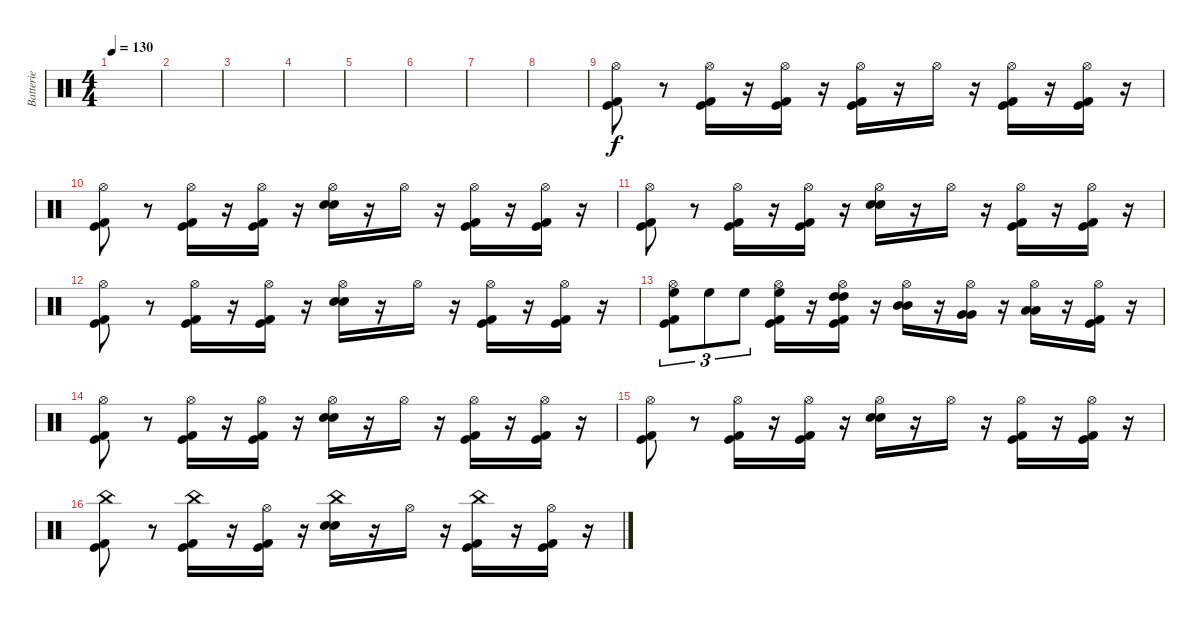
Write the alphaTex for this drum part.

\track ("Batterie" "Batterie") {instrument percussion}
\staff {score}
\articulation defaults
\ts (4 4)
\tempo 130
\clef neutral
\ks c
|
|
|
|
|
|
|
|
("Hi-Hat (open)" "Kick (hit) 2" "Kick (hit)").8 r.8 ("Hi-Hat (open)" "Kick (hit)" "Kick (hit) 2").16 r.16 ("Hi-Hat (open)" "Kick (hit)" "Kick (hit) 2").16 r.16 ("Hi-Hat (open)" "Kick (hit) 2" "Kick (hit)").16 r.16 "Hi-Hat (open)".16 r.16 ("Hi-Hat (open)" "Kick (hit)" "Kick (hit) 2").16 r.16 ("Hi-Hat (open)" "Kick (hit) 2" "Kick (hit)").16 r.16 |
("Hi-Hat (open)" "Kick (hit) 2" "Kick (hit)").8 r.8 ("Hi-Hat (open)" "Kick (hit)" "Kick (hit) 2").16 r.16 ("Hi-Hat (open)" "Kick (hit)" "Kick (hit) 2").16 r.16 ("Hi-Hat (open)" "Electric Snare (hit)" "Electric Snare (hit)").16 r.16 "Hi-Hat (open)".16 r.16 ("Hi-Hat (open)" "Kick (hit)" "Kick (hit) 2").16 r.16 ("Hi-Hat (open)" "Kick (hit) 2" "Kick (hit)").16 r.16 |
("Hi-Hat (open)" "Kick (hit) 2" "Kick (hit)").8 r.8 ("Hi-Hat (open)" "Kick (hit)" "Kick (hit) 2").16 r.16 ("Hi-Hat (open)" "Kick (hit)" "Kick (hit) 2").16 r.16 ("Hi-Hat (open)" "Electric Snare (hit)" "Electric Snare (hit)").16 r.16 "Hi-Hat (open)".16 r.16 ("Hi-Hat (open)" "Kick (hit)" "Kick (hit) 2").16 r.16 ("Hi-Hat (open)" "Kick (hit) 2" "Kick (hit)").16 r.16 |
("Hi-Hat (open)" "Kick (hit) 2" "Kick (hit)").8 r.8 ("Hi-Hat (open)" "Kick (hit)" "Kick (hit) 2").16 r.16 ("Hi-Hat (open)" "Kick (hit)" "Kick (hit) 2").16 r.16 ("Hi-Hat (open)" "Electric Snare (hit)" "Electric Snare (hit)").16 r.16 "Hi-Hat (open)".16 r.16 ("Hi-Hat (open)" "Kick (hit)" "Kick (hit) 2").16 r.16 ("Hi-Hat (open)" "Kick (hit) 2" "Kick (hit)").16 r.16 |
("Hi-Hat (open)" "High Floor Tom (hit)" "Kick (hit) 2" "Kick (hit)").8{tu (3 2)} "High Floor Tom (hit)".8{tu (3 2)} "High Floor Tom (hit)".8{tu (3 2)} ("Hi-Hat (open)" "High Floor Tom (hit)" "Kick (hit)" "Kick (hit) 2").16 r.16 ("Hi-Hat (open)" "High Tom (hit)" "High Tom (hit)" "Kick (hit)" "Kick (hit) 2").16 r.16 ("Hi-Hat (open)" "Mid Tom (hit)" "Mid Tom (hit)").16 r.16 ("Hi-Hat (open)" "Very Low Tom (hit)" "Very Low Tom (hit)").16 r.16 ("Hi-Hat (open)" "Low Floor Tom (hit)" "Low Floor Tom (hit)").16 r.16 ("Hi-Hat (open)" "Kick (hit)" "Kick (hit) 2").16 r.16 |
("Hi-Hat (open)" "Kick (hit) 2" "Kick (hit)").8 r.8 ("Hi-Hat (open)" "Kick (hit)" "Kick (hit) 2").16 r.16 ("Hi-Hat (open)" "Kick (hit)" "Kick (hit) 2").16 r.16 ("Hi-Hat (open)" "Electric Snare (hit)" "Electric Snare (hit)").16 r.16 "Hi-Hat (open)".16 r.16 ("Hi-Hat (open)" "Kick (hit)" "Kick (hit) 2").16 r.16 ("Hi-Hat (open)" "Kick (hit) 2" "Kick (hit)").16 r.16 |
("Hi-Hat (open)" "Kick (hit) 2" "Kick (hit)").8 r.8 ("Hi-Hat (open)" "Kick (hit)" "Kick (hit) 2").16 r.16 ("Hi-Hat (open)" "Kick (hit)" "Kick (hit) 2").16 r.16 ("Hi-Hat (open)" "Electric Snare (hit)" "Electric Snare (hit)").16 r.16 "Hi-Hat (open)".16 r.16 ("Hi-Hat (open)" "Kick (hit)" "Kick (hit) 2").16 r.16 ("Hi-Hat (open)" "Kick (hit) 2" "Kick (hit)").16 r.16 |
("China (hit)" "Kick (hit) 2" "Kick (hit)").8 r.8 ("China (hit)" "Kick (hit)" "Kick (hit) 2").16 r.16 ("Hi-Hat (open)" "Kick (hit)" "Kick (hit) 2").16 r.16 ("China (hit)" "Electric Snare (hit)" "Electric Snare (hit)").16 r.16 "Hi-Hat (open)".16 r.16 ("China (hit)" "Kick (hit)" "Kick (hit) 2").16 r.16 ("Hi-Hat (open)" "Kick (hit) 2" "Kick (hit)").16 r.16
